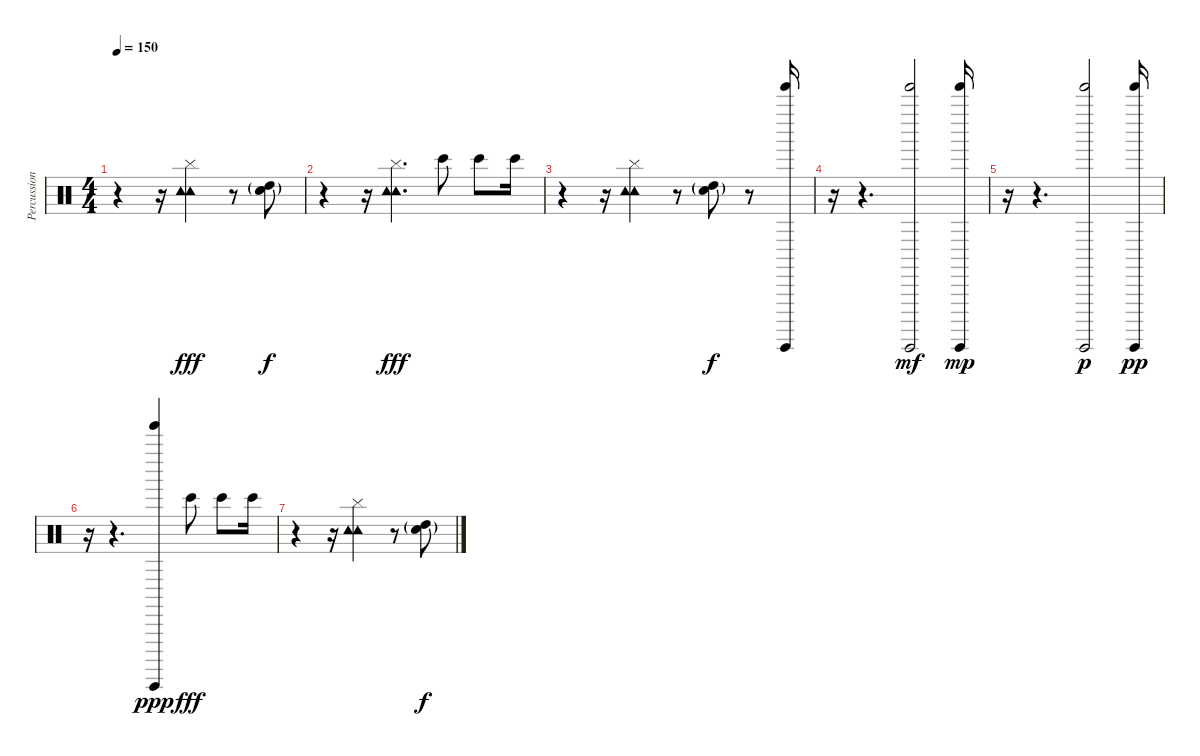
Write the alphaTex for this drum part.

\track ("Percussion" "Percussion") {instrument percussion}
\staff {score}
\articulation defaults
\ts (4 4)
\tempo 150
\clef neutral
\ks c
r.4{dy fff balance 8} r.16 ("Tambourine (hit)" "Cymbal (hit)" "Tambourine (hit)").4{bd 240} r.8 ("Snare (hit) 2"{g} "High Tom (hit)"{g}).8{dy f} |
r.4{balance 8} r.16 ("Tambourine (hit)" "Cymbal (hit)" "Tambourine (hit)").4{d bd 240 dy fff} "Bongo High (hit)".8{balance 0} "Bongo High (hit)".8 "Bongo High (hit)".16 |
r.4{balance 8} r.16 ("Tambourine (hit)" "Cymbal (hit)" "Tambourine (hit)").4{bd 240} r.8 ("Snare (hit) 2"{g} "High Tom (hit)"{g}).8{dy f} r.8 ("Guiro (hit)" "Tinkle Bell (hit)").16 |
r.16 r.4{d} ("Guiro (hit)" "Tinkle Bell (hit)").2{dy mf} ("Guiro (hit)" "Tinkle Bell (hit)").16{dy mp} |
r.16 r.4{d} ("Guiro (hit)" "Tinkle Bell (hit)").2{dy p} ("Guiro (hit)" "Tinkle Bell (hit)").16{dy pp} |
r.16 r.4{d} ("Guiro (hit)" "Tinkle Bell (hit)").4{dy ppp} "Bongo High (hit)".8{dy fff balance 0} "Bongo High (hit)".8 "Bongo High (hit)".16 |
r.4{balance 8} r.16 ("Tambourine (hit)" "Cymbal (hit)" "Tambourine (hit)").4{bd 240} r.8 ("Snare (hit) 2"{g} "High Tom (hit)"{g}).8{dy f}
